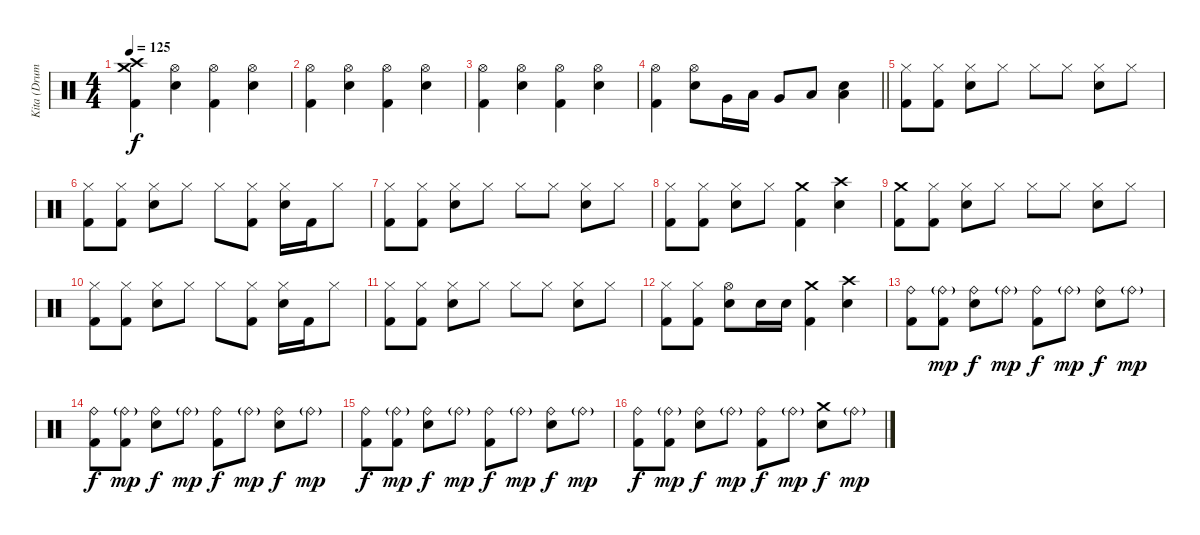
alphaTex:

\track ("Kita (Drums)" "Kita (Drum") {instrument percussion}
\staff {score}
\articulation defaults
\ts (4 4)
\tempo 125
\clef neutral
\ks c
("Crash medium (hit)" "Crash high (hit)" "Kick (hit) 2").4{dy f} ("Hi-Hat (open)" "Electric Snare (hit)").4 ("Hi-Hat (open)" "Kick (hit) 2").4 ("Hi-Hat (open)" "Electric Snare (hit)").4 |
("Hi-Hat (open)" "Kick (hit) 2").4 ("Hi-Hat (open)" "Electric Snare (hit)").4 ("Hi-Hat (open)" "Kick (hit) 2").4 ("Hi-Hat (open)" "Electric Snare (hit)").4 |
("Hi-Hat (open)" "Kick (hit) 2").4 ("Hi-Hat (open)" "Electric Snare (hit)").4 ("Hi-Hat (open)" "Kick (hit) 2").4 ("Hi-Hat (open)" "Electric Snare (hit)").4 |
\barLineRight lightlight
("Hi-Hat (open)" "Kick (hit) 2").4 ("Hi-Hat (open)" "Electric Snare (hit)").8 "Very Low Tom (hit)".16 "Low Tom (hit)".16 "Very Low Tom (hit)".8 "Low Floor Tom (hit)".8 ("Low Floor Tom (hit)" "Electric Snare (hit)").4 |
("Hi-Hat (closed)" "Kick (hit) 2").8 ("Hi-Hat (closed)" "Kick (hit) 2").8 ("Hi-Hat (closed)" "Electric Snare (hit)").8 "Hi-Hat (closed)".8 "Hi-Hat (closed)".8 "Hi-Hat (closed)".8 ("Hi-Hat (closed)" "Electric Snare (hit)").8 "Hi-Hat (closed)".8 |
("Hi-Hat (closed)" "Kick (hit) 2").8 ("Hi-Hat (closed)" "Kick (hit) 2").8 ("Hi-Hat (closed)" "Electric Snare (hit)").8 "Hi-Hat (closed)".8 "Hi-Hat (closed)".8 ("Hi-Hat (closed)" "Kick (hit) 2").8 ("Hi-Hat (closed)" "Electric Snare (hit)").16 "Kick (hit) 2".16 "Hi-Hat (closed)".8 |
("Hi-Hat (closed)" "Kick (hit) 2").8 ("Hi-Hat (closed)" "Kick (hit) 2").8 ("Hi-Hat (closed)" "Electric Snare (hit)").8 "Hi-Hat (closed)".8 "Hi-Hat (closed)".8 "Hi-Hat (closed)".8 ("Hi-Hat (closed)" "Electric Snare (hit)").8 "Hi-Hat (closed)".8 |
("Hi-Hat (closed)" "Kick (hit) 2").8 ("Hi-Hat (closed)" "Kick (hit) 2").8 ("Hi-Hat (closed)" "Electric Snare (hit)").8 "Hi-Hat (closed)".8 ("Crash medium (hit)" "Kick (hit) 2").4 ("Crash high (hit)" "Electric Snare (hit)").4 |
("Crash medium (hit)" "Kick (hit) 2").8 ("Hi-Hat (closed)" "Kick (hit) 2").8 ("Hi-Hat (closed)" "Electric Snare (hit)").8 "Hi-Hat (closed)".8 "Hi-Hat (closed)".8 "Hi-Hat (closed)".8 ("Hi-Hat (closed)" "Electric Snare (hit)").8 "Hi-Hat (closed)".8 |
("Hi-Hat (closed)" "Kick (hit) 2").8 ("Hi-Hat (closed)" "Kick (hit) 2").8 ("Hi-Hat (closed)" "Electric Snare (hit)").8 "Hi-Hat (closed)".8 "Hi-Hat (closed)".8 ("Hi-Hat (closed)" "Kick (hit) 2").8 ("Hi-Hat (closed)" "Electric Snare (hit)").16 "Kick (hit) 2".16 "Hi-Hat (closed)".8 |
("Hi-Hat (closed)" "Kick (hit) 2").8 ("Hi-Hat (closed)" "Kick (hit) 2").8 ("Hi-Hat (closed)" "Electric Snare (hit)").8 "Hi-Hat (closed)".8 "Hi-Hat (closed)".8 "Hi-Hat (closed)".8 ("Hi-Hat (closed)" "Electric Snare (hit)").8 "Hi-Hat (closed)".8 |
("Hi-Hat (closed)" "Kick (hit) 2").8 ("Hi-Hat (closed)" "Kick (hit) 2").8 ("Hi-Hat (open)" "Electric Snare (hit)").8 "Electric Snare (hit)".16 "Electric Snare (hit)".16 ("Crash medium (hit)" "Kick (hit) 2").4 ("Crash high (hit)" "Electric Snare (hit)").4 |
("Ride (bell)" "Kick (hit) 2").8 ("Ride (bell)"{g} "Kick (hit) 2").8{dy mp} ("Ride (bell)" "Electric Snare (hit)").8{dy f} "Ride (bell)"{g}.8{dy mp} ("Ride (bell)" "Kick (hit) 2").8{dy f} "Ride (bell)"{g}.8{dy mp} ("Ride (bell)" "Electric Snare (hit)").8{dy f} "Ride (bell)"{g}.8{dy mp} |
("Ride (bell)" "Kick (hit) 2").8{dy f} ("Ride (bell)"{g} "Kick (hit) 2").8{dy mp} ("Ride (bell)" "Electric Snare (hit)").8{dy f} "Ride (bell)"{g}.8{dy mp} ("Ride (bell)" "Kick (hit) 2").8{dy f} "Ride (bell)"{g}.8{dy mp} ("Ride (bell)" "Electric Snare (hit)").8{dy f} "Ride (bell)"{g}.8{dy mp} |
("Ride (bell)" "Kick (hit) 2").8{dy f} ("Ride (bell)"{g} "Kick (hit) 2").8{dy mp} ("Ride (bell)" "Electric Snare (hit)").8{dy f} "Ride (bell)"{g}.8{dy mp} ("Ride (bell)" "Kick (hit) 2").8{dy f} "Ride (bell)"{g}.8{dy mp} ("Ride (bell)" "Electric Snare (hit)").8{dy f} "Ride (bell)"{g}.8{dy mp} |
("Ride (bell)" "Kick (hit) 2").8{dy f} ("Ride (bell)"{g} "Kick (hit) 2").8{dy mp} ("Ride (bell)" "Electric Snare (hit)").8{dy f} "Ride (bell)"{g}.8{dy mp} ("Ride (bell)" "Kick (hit) 2").8{dy f} "Ride (bell)"{g}.8{dy mp} ("Crash medium (hit)" "Electric Snare (hit)").8{dy f} "Ride (bell)"{g}.8{dy mp}
